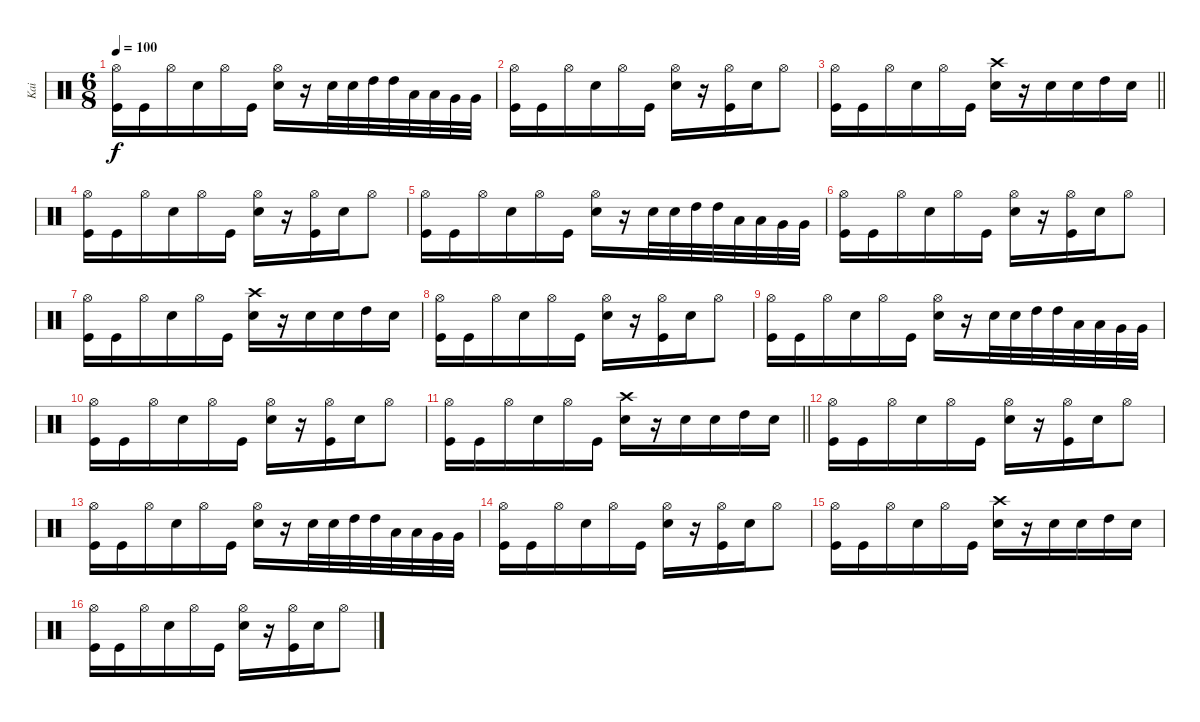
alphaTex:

\track ("Kai" "Kai") {instrument percussion}
\staff {score}
\articulation defaults
\ts (6 8)
\tempo 100
\clef neutral
\ks c
("Hi-Hat (open)" "Kick (hit)").16{dy f} "Kick (hit)".16 "Hi-Hat (open)".16 "Snare (hit) 2".16 "Hi-Hat (open)".16 "Kick (hit)".16 ("Hi-Hat (open)" "Snare (hit) 2").16 r.16 "Snare (hit) 2".32 "Snare (hit) 2".32 "High Tom (hit)".32 "High Tom (hit)".32 "Low Tom (hit)".32 "Low Tom (hit)".32 "Very Low Tom (hit)".32 "Very Low Tom (hit)".32 |
("Hi-Hat (open)" "Kick (hit)").16 "Kick (hit)".16 "Hi-Hat (open)".16 "Snare (hit) 2".16 "Hi-Hat (open)".16 "Kick (hit)".16 ("Hi-Hat (open)" "Snare (hit) 2").16 r.16 ("Hi-Hat (open)" "Kick (hit)").16 "Snare (hit) 2".16 "Hi-Hat (open)".8 |
\barLineRight lightlight
("Hi-Hat (open)" "Kick (hit)").16 "Kick (hit)".16 "Hi-Hat (open)".16 "Snare (hit) 2".16 "Hi-Hat (open)".16 "Kick (hit)".16 ("Crash high (hit)" "Snare (hit) 2").16 r.16 "Snare (hit) 2".16 "Snare (hit) 2".16 "High Tom (hit)".16 "Snare (hit) 2".16 |
("Hi-Hat (open)" "Kick (hit)").16 "Kick (hit)".16 "Hi-Hat (open)".16 "Snare (hit) 2".16 "Hi-Hat (open)".16 "Kick (hit)".16 ("Hi-Hat (open)" "Snare (hit) 2").16 r.16 ("Hi-Hat (open)" "Kick (hit)").16 "Snare (hit) 2".16 "Hi-Hat (open)".8 |
("Hi-Hat (open)" "Kick (hit)").16 "Kick (hit)".16 "Hi-Hat (open)".16 "Snare (hit) 2".16 "Hi-Hat (open)".16 "Kick (hit)".16 ("Hi-Hat (open)" "Snare (hit) 2").16 r.16 "Snare (hit) 2".32 "Snare (hit) 2".32 "High Tom (hit)".32 "High Tom (hit)".32 "Low Tom (hit)".32 "Low Tom (hit)".32 "Very Low Tom (hit)".32 "Very Low Tom (hit)".32 |
("Hi-Hat (open)" "Kick (hit)").16 "Kick (hit)".16 "Hi-Hat (open)".16 "Snare (hit) 2".16 "Hi-Hat (open)".16 "Kick (hit)".16 ("Hi-Hat (open)" "Snare (hit) 2").16 r.16 ("Hi-Hat (open)" "Kick (hit)").16 "Snare (hit) 2".16 "Hi-Hat (open)".8 |
("Hi-Hat (open)" "Kick (hit)").16 "Kick (hit)".16 "Hi-Hat (open)".16 "Snare (hit) 2".16 "Hi-Hat (open)".16 "Kick (hit)".16 ("Crash high (hit)" "Snare (hit) 2").16 r.16 "Snare (hit) 2".16 "Snare (hit) 2".16 "High Tom (hit)".16 "Snare (hit) 2".16 |
("Hi-Hat (open)" "Kick (hit)").16 "Kick (hit)".16 "Hi-Hat (open)".16 "Snare (hit) 2".16 "Hi-Hat (open)".16 "Kick (hit)".16 ("Hi-Hat (open)" "Snare (hit) 2").16 r.16 ("Hi-Hat (open)" "Kick (hit)").16 "Snare (hit) 2".16 "Hi-Hat (open)".8 |
("Hi-Hat (open)" "Kick (hit)").16 "Kick (hit)".16 "Hi-Hat (open)".16 "Snare (hit) 2".16 "Hi-Hat (open)".16 "Kick (hit)".16 ("Hi-Hat (open)" "Snare (hit) 2").16 r.16 "Snare (hit) 2".32 "Snare (hit) 2".32 "High Tom (hit)".32 "High Tom (hit)".32 "Low Tom (hit)".32 "Low Tom (hit)".32 "Very Low Tom (hit)".32 "Very Low Tom (hit)".32 |
("Hi-Hat (open)" "Kick (hit)").16 "Kick (hit)".16 "Hi-Hat (open)".16 "Snare (hit) 2".16 "Hi-Hat (open)".16 "Kick (hit)".16 ("Hi-Hat (open)" "Snare (hit) 2").16 r.16 ("Hi-Hat (open)" "Kick (hit)").16 "Snare (hit) 2".16 "Hi-Hat (open)".8 |
\barLineRight lightlight
("Hi-Hat (open)" "Kick (hit)").16 "Kick (hit)".16 "Hi-Hat (open)".16 "Snare (hit) 2".16 "Hi-Hat (open)".16 "Kick (hit)".16 ("Crash high (hit)" "Snare (hit) 2").16 r.16 "Snare (hit) 2".16 "Snare (hit) 2".16 "High Tom (hit)".16 "Snare (hit) 2".16 |
("Hi-Hat (open)" "Kick (hit)").16 "Kick (hit)".16 "Hi-Hat (open)".16 "Snare (hit) 2".16 "Hi-Hat (open)".16 "Kick (hit)".16 ("Hi-Hat (open)" "Snare (hit) 2").16 r.16 ("Hi-Hat (open)" "Kick (hit)").16 "Snare (hit) 2".16 "Hi-Hat (open)".8 |
("Hi-Hat (open)" "Kick (hit)").16 "Kick (hit)".16 "Hi-Hat (open)".16 "Snare (hit) 2".16 "Hi-Hat (open)".16 "Kick (hit)".16 ("Hi-Hat (open)" "Snare (hit) 2").16 r.16 "Snare (hit) 2".32 "Snare (hit) 2".32 "High Tom (hit)".32 "High Tom (hit)".32 "Low Tom (hit)".32 "Low Tom (hit)".32 "Very Low Tom (hit)".32 "Very Low Tom (hit)".32 |
("Hi-Hat (open)" "Kick (hit)").16 "Kick (hit)".16 "Hi-Hat (open)".16 "Snare (hit) 2".16 "Hi-Hat (open)".16 "Kick (hit)".16 ("Hi-Hat (open)" "Snare (hit) 2").16 r.16 ("Hi-Hat (open)" "Kick (hit)").16 "Snare (hit) 2".16 "Hi-Hat (open)".8 |
("Hi-Hat (open)" "Kick (hit)").16 "Kick (hit)".16 "Hi-Hat (open)".16 "Snare (hit) 2".16 "Hi-Hat (open)".16 "Kick (hit)".16 ("Crash high (hit)" "Snare (hit) 2").16 r.16 "Snare (hit) 2".16 "Snare (hit) 2".16 "High Tom (hit)".16 "Snare (hit) 2".16 |
("Hi-Hat (open)" "Kick (hit)").16 "Kick (hit)".16 "Hi-Hat (open)".16 "Snare (hit) 2".16 "Hi-Hat (open)".16 "Kick (hit)".16 ("Hi-Hat (open)" "Snare (hit) 2").16 r.16 ("Hi-Hat (open)" "Kick (hit)").16 "Snare (hit) 2".16 "Hi-Hat (open)".8
